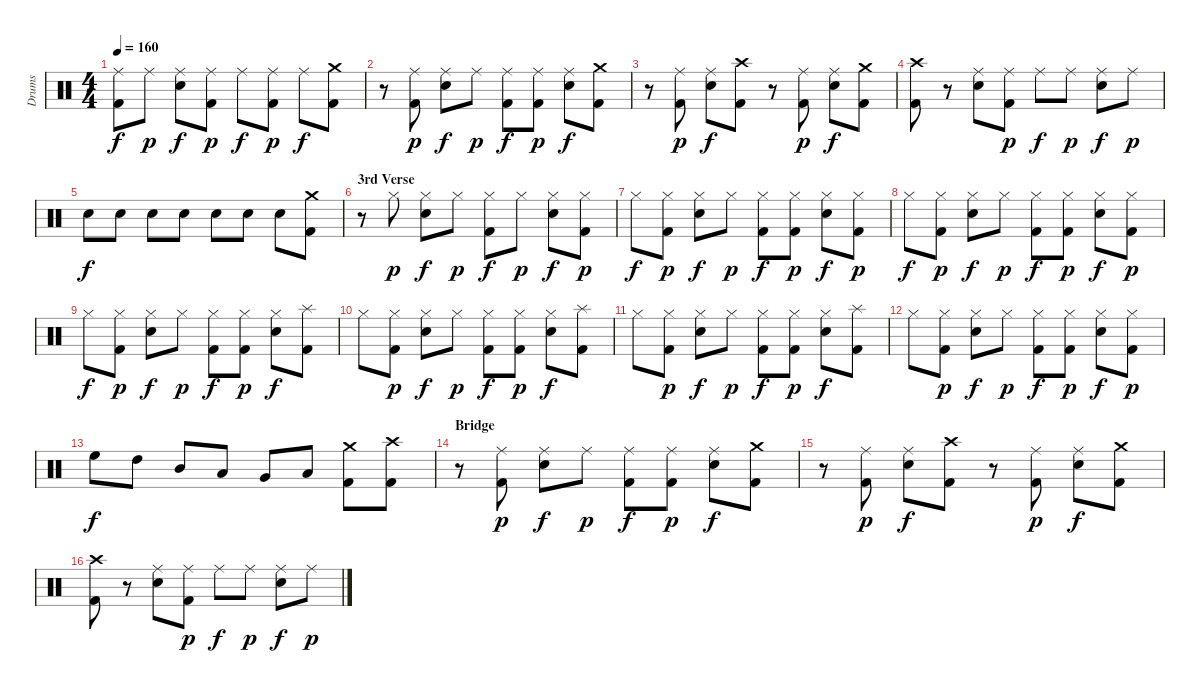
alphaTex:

\track ("Drums" "Drums") {instrument percussion}
\staff {score}
\articulation defaults
\ts (4 4)
\tempo 160
\clef neutral
\ks c
("Ride (middle)" "Kick (hit) 2").8{dy f} "Ride (middle)".8{dy p} ("Ride (middle)" "Snare (hit) 2").8{dy f} ("Ride (middle)" "Kick (hit) 2").8{dy p} "Ride (middle)".8{dy f} ("Ride (middle)" "Kick (hit) 2").8{dy p} "Ride (middle)".8{dy f} ("Crash medium (hit)" "Kick (hit) 2").8 |
r.8 ("Ride (middle)" "Kick (hit) 2").8{dy p} ("Ride (middle)" "Snare (hit) 2").8{dy f} "Ride (middle)".8{dy p} ("Ride (middle)" "Kick (hit) 2").8{dy f} ("Ride (middle)" "Kick (hit) 2").8{dy p} ("Ride (middle)" "Snare (hit) 2").8{dy f} ("Crash medium (hit)" "Kick (hit) 2").8 |
r.8 ("Ride (middle)" "Kick (hit) 2").8{dy p} ("Ride (middle)" "Snare (hit) 2").8{dy f} ("Crash high (hit)" "Kick (hit) 2").8 r.8 ("Ride (middle)" "Kick (hit) 2").8{dy p} ("Ride (middle)" "Snare (hit) 2").8{dy f} ("Crash medium (hit)" "Kick (hit) 2").8 |
("Crash high (hit)" "Kick (hit) 2").8 r.8 ("Ride (middle)" "Snare (hit) 2").8 ("Ride (middle)" "Kick (hit) 2").8{dy p} "Ride (middle)".8{dy f} "Ride (middle)".8{dy p} ("Ride (middle)" "Snare (hit) 2").8{dy f} "Ride (middle)".8{dy p} |
"Snare (hit) 2".8{dy f} "Snare (hit) 2".8 "Snare (hit) 2".8 "Snare (hit) 2".8 "Snare (hit) 2".8 "Snare (hit) 2".8 "Snare (hit) 2".8 ("Crash medium (hit)" "Kick (hit) 2").8 |
\section ("" "3rd Verse")
r.8 "Hi-Hat (closed)".8{dy p} ("Hi-Hat (closed)" "Snare (hit) 2").8{dy f} "Hi-Hat (closed)".8{dy p} ("Hi-Hat (closed)" "Kick (hit) 2").8{dy f} "Hi-Hat (closed)".8{dy p} ("Hi-Hat (closed)" "Snare (hit) 2").8{dy f} ("Hi-Hat (closed)" "Kick (hit) 2").8{dy p} |
"Hi-Hat (closed)".8{dy f} ("Hi-Hat (closed)" "Kick (hit) 2").8{dy p} ("Hi-Hat (closed)" "Snare (hit) 2").8{dy f} "Hi-Hat (closed)".8{dy p} ("Hi-Hat (closed)" "Kick (hit) 2").8{dy f} ("Hi-Hat (closed)" "Kick (hit) 2").8{dy p} ("Hi-Hat (closed)" "Snare (hit) 2").8{dy f} ("Hi-Hat (closed)" "Kick (hit) 2").8{dy p} |
"Hi-Hat (closed)".8{dy f} ("Hi-Hat (closed)" "Kick (hit) 2").8{dy p} ("Hi-Hat (closed)" "Snare (hit) 2").8{dy f} "Hi-Hat (closed)".8{dy p} ("Hi-Hat (closed)" "Kick (hit) 2").8{dy f} ("Hi-Hat (closed)" "Kick (hit) 2").8{dy p} ("Hi-Hat (closed)" "Snare (hit) 2").8{dy f} ("Hi-Hat (closed)" "Kick (hit) 2").8{dy p} |
"Hi-Hat (closed)".8{dy f} ("Hi-Hat (closed)" "Kick (hit) 2").8{dy p} ("Hi-Hat (closed)" "Snare (hit) 2").8{dy f} "Hi-Hat (closed)".8{dy p} ("Hi-Hat (closed)" "Kick (hit) 2").8{dy f} ("Hi-Hat (closed)" "Kick (hit) 2").8{dy p} ("Hi-Hat (closed)" "Snare (hit) 2").8{dy f} ("Splash (hit)" "Kick (hit) 2").8 |
"Hi-Hat (closed)".8 ("Hi-Hat (closed)" "Kick (hit) 2").8{dy p} ("Hi-Hat (closed)" "Snare (hit) 2").8{dy f} "Hi-Hat (closed)".8{dy p} ("Hi-Hat (closed)" "Kick (hit) 2").8{dy f} ("Hi-Hat (closed)" "Kick (hit) 2").8{dy p} ("Hi-Hat (closed)" "Snare (hit) 2").8{dy f} ("Splash (hit)" "Kick (hit) 2").8 |
"Hi-Hat (closed)".8 ("Hi-Hat (closed)" "Kick (hit) 2").8{dy p} ("Hi-Hat (closed)" "Snare (hit) 2").8{dy f} "Hi-Hat (closed)".8{dy p} ("Hi-Hat (closed)" "Kick (hit) 2").8{dy f} ("Hi-Hat (closed)" "Kick (hit) 2").8{dy p} ("Hi-Hat (closed)" "Snare (hit) 2").8{dy f} ("Splash (hit)" "Kick (hit) 2").8 |
"Hi-Hat (closed)".8 ("Hi-Hat (closed)" "Kick (hit) 2").8{dy p} ("Hi-Hat (closed)" "Snare (hit) 2").8{dy f} "Hi-Hat (closed)".8{dy p} ("Hi-Hat (closed)" "Kick (hit) 2").8{dy f} ("Hi-Hat (closed)" "Kick (hit) 2").8{dy p} ("Hi-Hat (closed)" "Snare (hit) 2").8{dy f} ("Hi-Hat (closed)" "Kick (hit) 2").8{dy p} |
"High Floor Tom (hit)".8{dy f} "High Tom (hit)".8 "Mid Tom (hit)".8 "Low Tom (hit)".8 "Very Low Tom (hit)".8 "Low Floor Tom (hit)".8 ("Crash medium (hit)" "Kick (hit) 2").8 ("Crash high (hit)" "Kick (hit) 2").8 |
\section ("" "Bridge")
r.8 ("Ride (middle)" "Kick (hit) 2").8{dy p} ("Ride (middle)" "Snare (hit) 2").8{dy f} "Ride (middle)".8{dy p} ("Ride (middle)" "Kick (hit) 2").8{dy f} ("Ride (middle)" "Kick (hit) 2").8{dy p} ("Ride (middle)" "Snare (hit) 2").8{dy f} ("Crash medium (hit)" "Kick (hit) 2").8 |
r.8 ("Ride (middle)" "Kick (hit) 2").8{dy p} ("Ride (middle)" "Snare (hit) 2").8{dy f} ("Crash high (hit)" "Kick (hit) 2").8 r.8 ("Ride (middle)" "Kick (hit) 2").8{dy p} ("Ride (middle)" "Snare (hit) 2").8{dy f} ("Crash medium (hit)" "Kick (hit) 2").8 |
("Crash high (hit)" "Kick (hit) 2").8 r.8 ("Ride (middle)" "Snare (hit) 2").8 ("Ride (middle)" "Kick (hit) 2").8{dy p} "Ride (middle)".8{dy f} "Ride (middle)".8{dy p} ("Ride (middle)" "Snare (hit) 2").8{dy f} "Ride (middle)".8{dy p}
